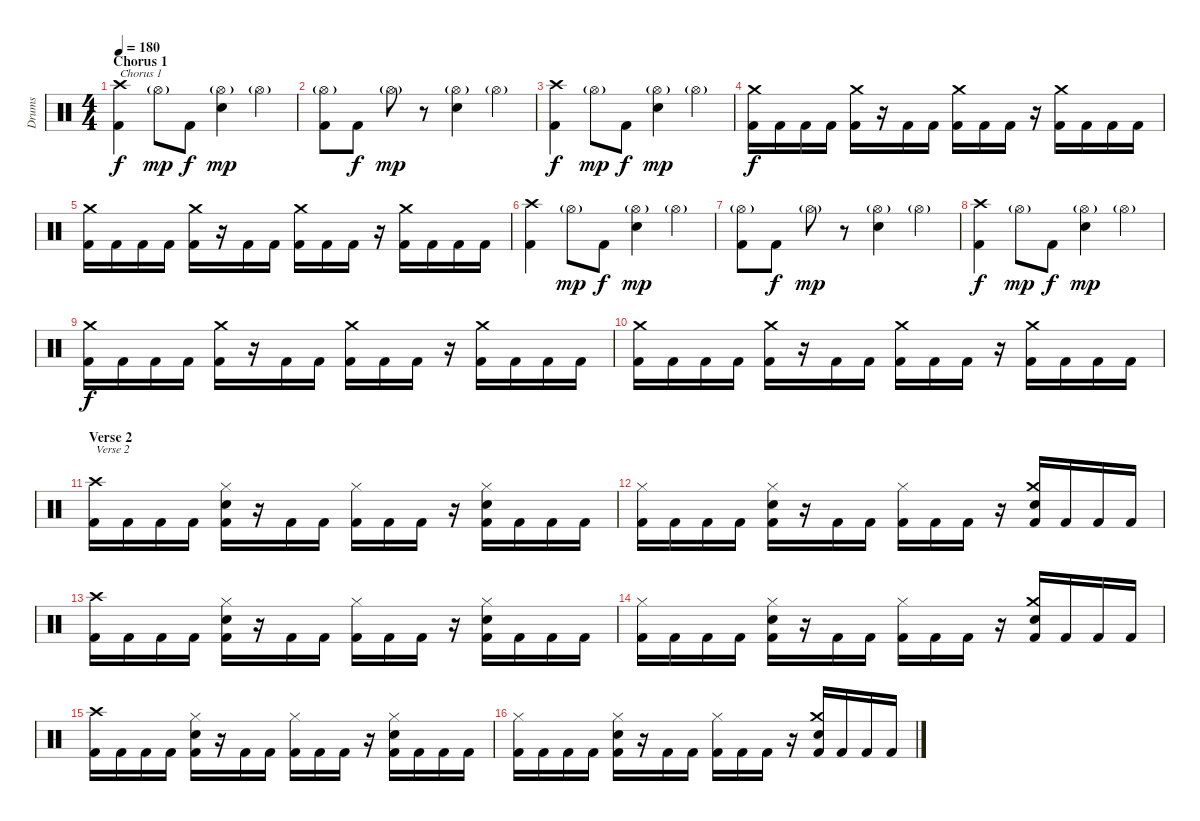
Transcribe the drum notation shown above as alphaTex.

\track ("Drums" "Drums") {instrument percussion}
\staff {score}
\articulation defaults
\ts (4 4)
\section ("" "Chorus 1")
\tempo 180
\clef neutral
\ks c
("Kick (hit) 2" "Crash high (hit)").4{txt "Chorus 1" dy f} "Hi-Hat (open)"{g}.8{dy mp} "Kick (hit) 2".8{dy f} ("Hi-Hat (open)"{g} "Electric Snare (hit)").4{dy mp} "Hi-Hat (open)"{g}.4 |
("Kick (hit) 2" "Hi-Hat (open)"{g}).8 "Kick (hit) 2".8{dy f} "Hi-Hat (open)"{g}.8{dy mp} r.8 ("Hi-Hat (open)"{g} "Electric Snare (hit)").4 "Hi-Hat (open)"{g}.4 |
("Kick (hit) 2" "Crash high (hit)").4{dy f} "Hi-Hat (open)"{g}.8{dy mp} "Kick (hit) 2".8{dy f} ("Hi-Hat (open)"{g} "Electric Snare (hit)").4{dy mp} "Hi-Hat (open)"{g}.4 |
("Kick (hit) 2" "Crash medium (hit)").16{dy f} "Kick (hit) 2".16 "Kick (hit) 2".16 "Kick (hit) 2".16 ("Kick (hit) 2" "Crash medium (hit)").16 r.16 "Kick (hit) 2".16 "Kick (hit) 2".16 ("Kick (hit) 2" "Crash medium (hit)").16 "Kick (hit) 2".16 "Kick (hit) 2".16 r.16 ("Kick (hit) 2" "Crash medium (hit)").16 "Kick (hit) 2".16 "Kick (hit) 2".16 "Kick (hit) 2".16 |
("Kick (hit) 2" "Crash medium (hit)").16 "Kick (hit) 2".16 "Kick (hit) 2".16 "Kick (hit) 2".16 ("Kick (hit) 2" "Crash medium (hit)").16 r.16 "Kick (hit) 2".16 "Kick (hit) 2".16 ("Kick (hit) 2" "Crash medium (hit)").16 "Kick (hit) 2".16 "Kick (hit) 2".16 r.16 ("Kick (hit) 2" "Crash medium (hit)").16 "Kick (hit) 2".16 "Kick (hit) 2".16 "Kick (hit) 2".16 |
("Kick (hit) 2" "Crash high (hit)").4 "Hi-Hat (open)"{g}.8{dy mp} "Kick (hit) 2".8{dy f} ("Hi-Hat (open)"{g} "Electric Snare (hit)").4{dy mp} "Hi-Hat (open)"{g}.4 |
("Kick (hit) 2" "Hi-Hat (open)"{g}).8 "Kick (hit) 2".8{dy f} "Hi-Hat (open)"{g}.8{dy mp} r.8 ("Hi-Hat (open)"{g} "Electric Snare (hit)").4 "Hi-Hat (open)"{g}.4 |
("Kick (hit) 2" "Crash high (hit)").4{dy f} "Hi-Hat (open)"{g}.8{dy mp} "Kick (hit) 2".8{dy f} ("Hi-Hat (open)"{g} "Electric Snare (hit)").4{dy mp} "Hi-Hat (open)"{g}.4 |
("Kick (hit) 2" "Crash medium (hit)").16{dy f} "Kick (hit) 2".16 "Kick (hit) 2".16 "Kick (hit) 2".16 ("Kick (hit) 2" "Crash medium (hit)").16 r.16 "Kick (hit) 2".16 "Kick (hit) 2".16 ("Kick (hit) 2" "Crash medium (hit)").16 "Kick (hit) 2".16 "Kick (hit) 2".16 r.16 ("Kick (hit) 2" "Crash medium (hit)").16 "Kick (hit) 2".16 "Kick (hit) 2".16 "Kick (hit) 2".16 |
("Kick (hit) 2" "Crash medium (hit)").16 "Kick (hit) 2".16 "Kick (hit) 2".16 "Kick (hit) 2".16 ("Kick (hit) 2" "Crash medium (hit)").16 r.16 "Kick (hit) 2".16 "Kick (hit) 2".16 ("Kick (hit) 2" "Crash medium (hit)").16 "Kick (hit) 2".16 "Kick (hit) 2".16 r.16 ("Kick (hit) 2" "Crash medium (hit)").16 "Kick (hit) 2".16 "Kick (hit) 2".16 "Kick (hit) 2".16 |
\section ("" "Verse 2")
("Kick (hit) 2" "Crash high (hit)").16{txt "Verse 2"} "Kick (hit) 2".16 "Kick (hit) 2".16 "Kick (hit) 2".16 ("Kick (hit) 2" "Snare (hit) 2" "Hi-Hat (closed)").16 r.16 "Kick (hit) 2".16 "Kick (hit) 2".16 ("Kick (hit) 2" "Hi-Hat (closed)").16 "Kick (hit) 2".16 "Kick (hit) 2".16 r.16 ("Kick (hit) 2" "Snare (hit) 2" "Hi-Hat (closed)").16 "Kick (hit) 2".16 "Kick (hit) 2".16 "Kick (hit) 2".16 |
("Kick (hit) 2" "Hi-Hat (closed)").16 "Kick (hit) 2".16 "Kick (hit) 2".16 "Kick (hit) 2".16 ("Kick (hit) 2" "Snare (hit) 2" "Hi-Hat (closed)").16 r.16 "Kick (hit) 2".16 "Kick (hit) 2".16 ("Kick (hit) 2" "Hi-Hat (closed)").16 "Kick (hit) 2".16 "Kick (hit) 2".16 r.16 ("Kick (hit) 2" "Snare (hit) 2" "Crash medium (hit)").16 "Kick (hit) 2".16 "Kick (hit) 2".16 "Kick (hit) 2".16 |
("Kick (hit) 2" "Crash high (hit)").16 "Kick (hit) 2".16 "Kick (hit) 2".16 "Kick (hit) 2".16 ("Kick (hit) 2" "Snare (hit) 2" "Hi-Hat (closed)").16 r.16 "Kick (hit) 2".16 "Kick (hit) 2".16 ("Kick (hit) 2" "Hi-Hat (closed)").16 "Kick (hit) 2".16 "Kick (hit) 2".16 r.16 ("Kick (hit) 2" "Snare (hit) 2" "Hi-Hat (closed)").16 "Kick (hit) 2".16 "Kick (hit) 2".16 "Kick (hit) 2".16 |
("Kick (hit) 2" "Hi-Hat (closed)").16 "Kick (hit) 2".16 "Kick (hit) 2".16 "Kick (hit) 2".16 ("Kick (hit) 2" "Snare (hit) 2" "Hi-Hat (closed)").16 r.16 "Kick (hit) 2".16 "Kick (hit) 2".16 ("Kick (hit) 2" "Hi-Hat (closed)").16 "Kick (hit) 2".16 "Kick (hit) 2".16 r.16 ("Kick (hit) 2" "Snare (hit) 2" "Crash medium (hit)").16 "Kick (hit) 2".16 "Kick (hit) 2".16 "Kick (hit) 2".16 |
("Kick (hit) 2" "Crash high (hit)").16 "Kick (hit) 2".16 "Kick (hit) 2".16 "Kick (hit) 2".16 ("Kick (hit) 2" "Snare (hit) 2" "Hi-Hat (closed)").16 r.16 "Kick (hit) 2".16 "Kick (hit) 2".16 ("Kick (hit) 2" "Hi-Hat (closed)").16 "Kick (hit) 2".16 "Kick (hit) 2".16 r.16 ("Kick (hit) 2" "Snare (hit) 2" "Hi-Hat (closed)").16 "Kick (hit) 2".16 "Kick (hit) 2".16 "Kick (hit) 2".16 |
("Kick (hit) 2" "Hi-Hat (closed)").16 "Kick (hit) 2".16 "Kick (hit) 2".16 "Kick (hit) 2".16 ("Kick (hit) 2" "Snare (hit) 2" "Hi-Hat (closed)").16 r.16 "Kick (hit) 2".16 "Kick (hit) 2".16 ("Kick (hit) 2" "Hi-Hat (closed)").16 "Kick (hit) 2".16 "Kick (hit) 2".16 r.16 ("Kick (hit) 2" "Snare (hit) 2" "Crash medium (hit)").16 "Kick (hit) 2".16 "Kick (hit) 2".16 "Kick (hit) 2".16
